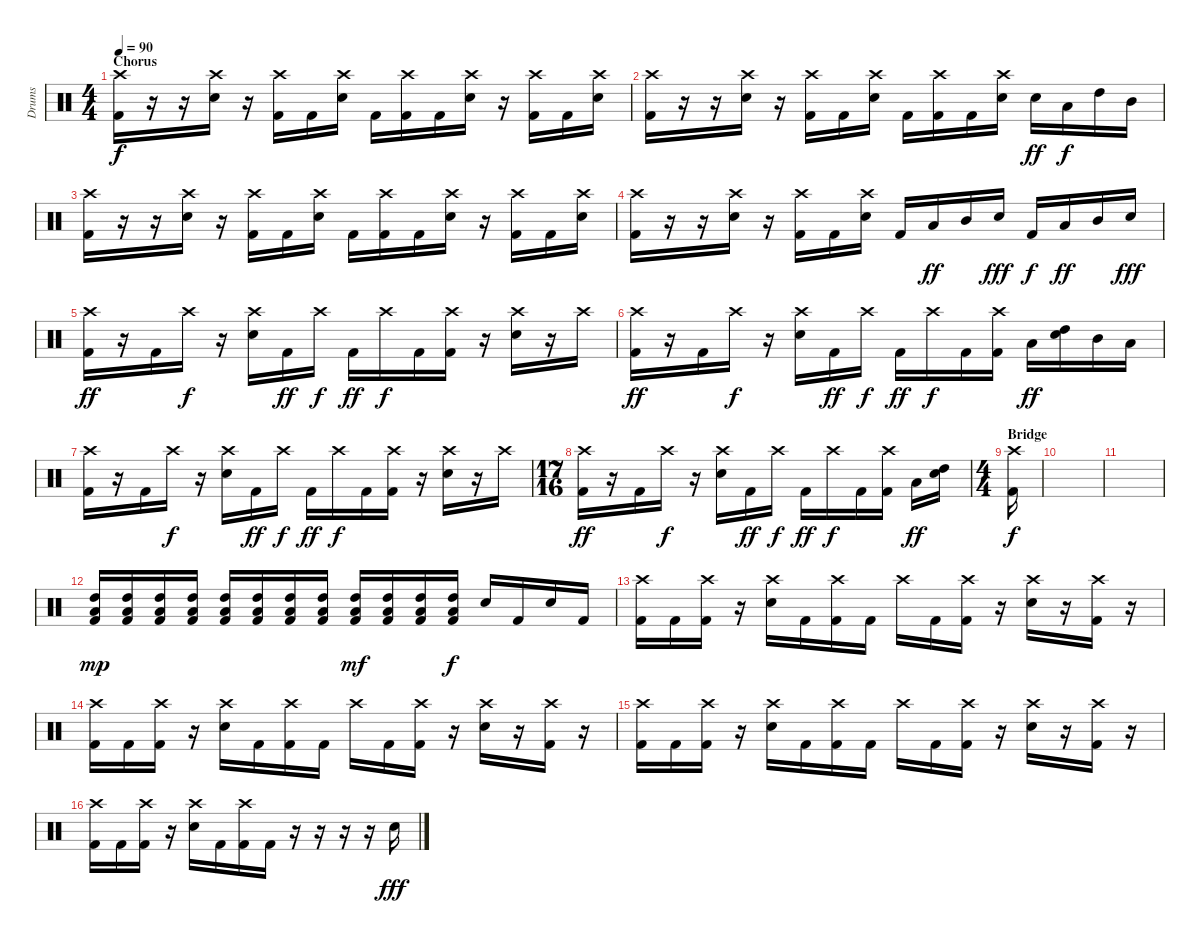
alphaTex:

\track ("Drums" "Drums") {instrument percussion}
\staff {score}
\articulation defaults
\ts (4 4)
\section ("" "Chorus")
\tempo 90
\clef neutral
\ks c
("Crash high (hit)" "Kick (hit) 2").16{dy f} r.16 r.16 ("Crash high (hit)" "Electric Snare (hit)").16 r.16 ("Crash high (hit)" "Kick (hit) 2").16 "Kick (hit) 2".16 ("Crash high (hit)" "Electric Snare (hit)").16 "Kick (hit) 2".16 ("Crash high (hit)" "Kick (hit) 2").16 "Kick (hit) 2".16 ("Crash high (hit)" "Electric Snare (hit)").16 r.16 ("Crash high (hit)" "Kick (hit) 2").16 "Kick (hit) 2".16 ("Crash high (hit)" "Electric Snare (hit)").16 |
("Crash high (hit)" "Kick (hit) 2").16 r.16 r.16 ("Crash high (hit)" "Electric Snare (hit)").16 r.16 ("Crash high (hit)" "Kick (hit) 2").16 "Kick (hit) 2".16 ("Crash high (hit)" "Electric Snare (hit)").16 "Kick (hit) 2".16 ("Crash high (hit)" "Kick (hit) 2").16 "Kick (hit) 2".16 ("Crash high (hit)" "Electric Snare (hit)").16 "Electric Snare (hit)".16{dy ff} "Low Tom (hit)".16{dy f} "High Tom (hit)".16 "Mid Tom (hit)".16 |
("Crash high (hit)" "Kick (hit) 2").16 r.16 r.16 ("Crash high (hit)" "Electric Snare (hit)").16 r.16 ("Crash high (hit)" "Kick (hit) 2").16 "Kick (hit) 2".16 ("Crash high (hit)" "Electric Snare (hit)").16 "Kick (hit) 2".16 ("Crash high (hit)" "Kick (hit) 2").16 "Kick (hit) 2".16 ("Crash high (hit)" "Electric Snare (hit)").16 r.16 ("Crash high (hit)" "Kick (hit) 2").16 "Kick (hit) 2".16 ("Crash high (hit)" "Electric Snare (hit)").16 |
("Crash high (hit)" "Kick (hit) 2").16 r.16 r.16 ("Crash high (hit)" "Electric Snare (hit)").16 r.16 ("Crash high (hit)" "Kick (hit) 2").16 "Kick (hit) 2".16 ("Crash high (hit)" "Electric Snare (hit)").16 "Kick (hit) 2".16 "Low Tom (hit)".16{dy ff} "Mid Tom (hit)".16 "Electric Snare (hit)".16{dy fff} "Kick (hit) 2".16{dy f} "Low Tom (hit)".16{dy ff} "Mid Tom (hit)".16 "Electric Snare (hit)".16{dy fff} |
("Crash high (hit)" "Kick (hit) 2").16{dy ff} r.16 "Kick (hit) 2".16 "Crash high (hit)".16{dy f} r.16 ("Crash high (hit)" "Electric Snare (hit)").16 "Kick (hit) 2".16{dy ff} "Crash high (hit)".16{dy f} "Kick (hit) 2".16{dy ff} "Crash high (hit)".16{dy f} "Kick (hit) 2".16 ("Crash high (hit)" "Kick (hit) 2").16 r.16 ("Crash high (hit)" "Electric Snare (hit)").16 r.16 "Crash high (hit)".16 |
("Crash high (hit)" "Kick (hit) 2").16{dy ff} r.16 "Kick (hit) 2".16 "Crash high (hit)".16{dy f} r.16 ("Crash high (hit)" "Electric Snare (hit)").16 "Kick (hit) 2".16{dy ff} "Crash high (hit)".16{dy f} "Kick (hit) 2".16{dy ff} "Crash high (hit)".16{dy f} "Kick (hit) 2".16 ("Crash high (hit)" "Kick (hit) 2").16 "Low Tom (hit)".16{dy ff} ("High Tom (hit)" "Electric Snare (hit)").16 "Mid Tom (hit)".16 "Low Tom (hit)".16 |
("Crash high (hit)" "Kick (hit) 2").16 r.16 "Kick (hit) 2".16 "Crash high (hit)".16{dy f} r.16 ("Crash high (hit)" "Electric Snare (hit)").16 "Kick (hit) 2".16{dy ff} "Crash high (hit)".16{dy f} "Kick (hit) 2".16{dy ff} "Crash high (hit)".16{dy f} "Kick (hit) 2".16 ("Crash high (hit)" "Kick (hit) 2").16 r.16 ("Crash high (hit)" "Electric Snare (hit)").16 r.16 "Crash high (hit)".16 |
\ts (17 16)
("Crash high (hit)" "Kick (hit) 2").16{dy ff} r.16 "Kick (hit) 2".16 "Crash high (hit)".16{dy f} r.16 ("Crash high (hit)" "Electric Snare (hit)").16 "Kick (hit) 2".16{dy ff} "Crash high (hit)".16{dy f} "Kick (hit) 2".16{dy ff} "Crash high (hit)".16{dy f} "Kick (hit) 2".16 ("Crash high (hit)" "Kick (hit) 2").16 "Low Tom (hit)".16{dy ff} ("High Tom (hit)" "Electric Snare (hit)").16 |
\ts (4 4)
\section ("" "Bridge")
("Crash high (hit)" "Kick (hit) 2").16{dy f} |
|
|
("Low Tom (hit)" "High Tom (hit)" "Kick (hit) 2").16{dy mp} ("Low Tom (hit)" "High Tom (hit)" "Kick (hit) 2").16 ("Low Tom (hit)" "High Tom (hit)" "Kick (hit) 2").16 ("Low Tom (hit)" "High Tom (hit)" "Kick (hit) 2").16 ("Low Tom (hit)" "High Tom (hit)" "Kick (hit) 2").16 ("Low Tom (hit)" "High Tom (hit)" "Kick (hit) 2").16 ("Low Tom (hit)" "High Tom (hit)" "Kick (hit) 2").16 ("Low Tom (hit)" "High Tom (hit)" "Kick (hit) 2").16 ("Low Tom (hit)" "High Tom (hit)" "Kick (hit) 2").16{dy mf} ("Low Tom (hit)" "High Tom (hit)" "Kick (hit) 2").16 ("Low Tom (hit)" "High Tom (hit)" "Kick (hit) 2").16 ("Low Tom (hit)" "High Tom (hit)" "Kick (hit) 2").16{dy f} "Electric Snare (hit)".16 "Kick (hit) 2".16 "Electric Snare (hit)".16 "Kick (hit) 2".16 |
("Crash high (hit)" "Kick (hit) 2").16 "Kick (hit) 2".16 ("Crash high (hit)" "Kick (hit) 2").16 r.16 ("Crash high (hit)" "Electric Snare (hit)").16 "Kick (hit) 2".16 ("Crash high (hit)" "Kick (hit) 2").16 "Kick (hit) 2".16 "Crash high (hit)".16 "Kick (hit) 2".16 ("Crash high (hit)" "Kick (hit) 2").16 r.16 ("Crash high (hit)" "Electric Snare (hit)").16 r.16 ("Crash high (hit)" "Kick (hit) 2").16 r.16 |
("Crash high (hit)" "Kick (hit) 2").16 "Kick (hit) 2".16 ("Crash high (hit)" "Kick (hit) 2").16 r.16 ("Crash high (hit)" "Electric Snare (hit)").16 "Kick (hit) 2".16 ("Crash high (hit)" "Kick (hit) 2").16 "Kick (hit) 2".16 "Crash high (hit)".16 "Kick (hit) 2".16 ("Crash high (hit)" "Kick (hit) 2").16 r.16 ("Crash high (hit)" "Electric Snare (hit)").16 r.16 ("Crash high (hit)" "Kick (hit) 2").16 r.16 |
("Crash high (hit)" "Kick (hit) 2").16 "Kick (hit) 2".16 ("Crash high (hit)" "Kick (hit) 2").16 r.16 ("Crash high (hit)" "Electric Snare (hit)").16 "Kick (hit) 2".16 ("Crash high (hit)" "Kick (hit) 2").16 "Kick (hit) 2".16 "Crash high (hit)".16 "Kick (hit) 2".16 ("Crash high (hit)" "Kick (hit) 2").16 r.16 ("Crash high (hit)" "Electric Snare (hit)").16 r.16 ("Crash high (hit)" "Kick (hit) 2").16 r.16 |
("Crash high (hit)" "Kick (hit) 2").16 "Kick (hit) 2".16 ("Crash high (hit)" "Kick (hit) 2").16 r.16 ("Crash high (hit)" "Electric Snare (hit)").16 "Kick (hit) 2".16 ("Crash high (hit)" "Kick (hit) 2").16 "Kick (hit) 2".16 r.16 r.16 r.16 r.16 "Electric Snare (hit)".16{dy fff}
